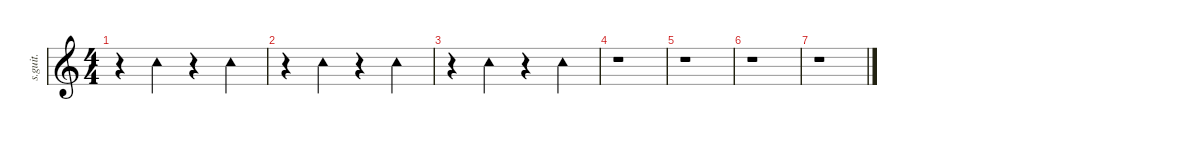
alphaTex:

\defaultSystemsLayout 4
\hideDynamics
\bracketExtendMode nobrackets
\track ("Studio" "s.guit.") {instrument percussion}
\staff {score}
\articulation defaults
\ts (4 4)
\tempo (149 hide)
\clef g2
\ks c
r.4{dy mp} "Tambourine (hit)".4{lyrics (0 "") lyrics (1 "") lyrics (2 "") lyrics (3 "") lyrics (4 "")} r.4 "Tambourine (hit)".4{lyrics (0 "") lyrics (1 "") lyrics (2 "") lyrics (3 "") lyrics (4 "")} |
r.4 "Tambourine (hit)".4{lyrics (0 "") lyrics (1 "") lyrics (2 "") lyrics (3 "") lyrics (4 "")} r.4 "Tambourine (hit)".4{lyrics (0 "") lyrics (1 "") lyrics (2 "") lyrics (3 "") lyrics (4 "")} |
r.4 "Tambourine (hit)".4{lyrics (0 "") lyrics (1 "") lyrics (2 "") lyrics (3 "") lyrics (4 "")} r.4 "Tambourine (hit)".4{lyrics (0 "") lyrics (1 "") lyrics (2 "") lyrics (3 "") lyrics (4 "")} |
r.1 |
r.1 |
r.1 |
r.1
